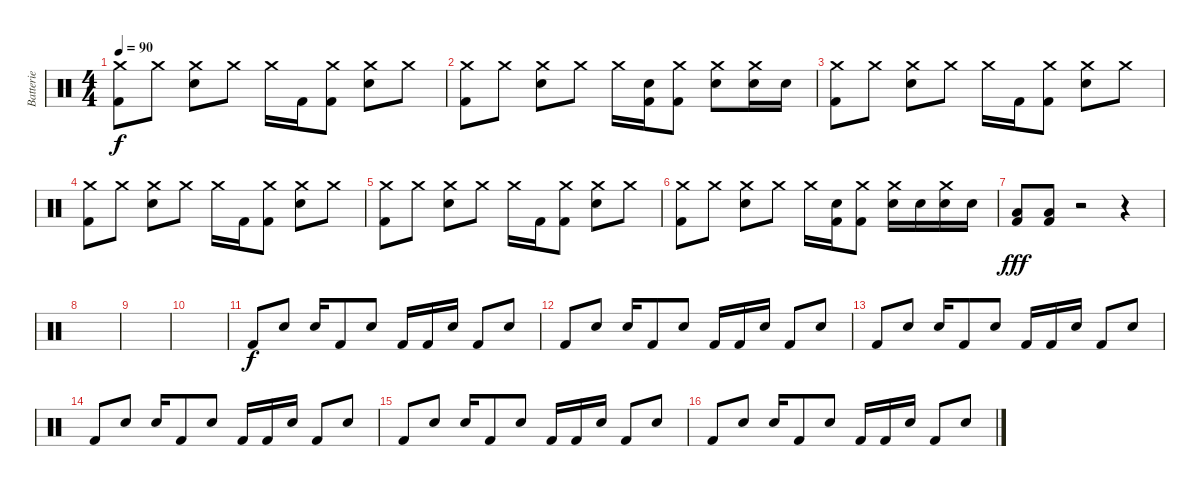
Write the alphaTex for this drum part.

\track ("Batterie" "Batterie") {instrument percussion}
\staff {score}
\articulation defaults
\ts (4 4)
\tempo 90
\clef neutral
\ks c
("Crash medium (hit)" "Kick (hit) 2").8{dy f} "Crash medium (hit)".8 ("Crash medium (hit)" "Snare (hit) 2").8 "Crash medium (hit)".8 "Crash medium (hit)".16 "Kick (hit) 2".16 ("Crash medium (hit)" "Kick (hit) 2").8 ("Crash medium (hit)" "Snare (hit) 2").8 "Crash medium (hit)".8 |
("Crash medium (hit)" "Kick (hit) 2").8 "Crash medium (hit)".8 ("Crash medium (hit)" "Snare (hit) 2").8 "Crash medium (hit)".8 "Crash medium (hit)".16 ("Snare (hit) 2" "Kick (hit) 2").16 ("Crash medium (hit)" "Kick (hit) 2").8 ("Crash medium (hit)" "Snare (hit) 2").8 ("Crash medium (hit)" "Snare (hit) 2").16 "Snare (hit) 2".16 |
("Crash medium (hit)" "Kick (hit) 2").8 "Crash medium (hit)".8 ("Crash medium (hit)" "Snare (hit) 2").8 "Crash medium (hit)".8 "Crash medium (hit)".16 "Kick (hit) 2".16 ("Crash medium (hit)" "Kick (hit) 2").8 ("Crash medium (hit)" "Snare (hit) 2").8 "Crash medium (hit)".8 |
("Crash medium (hit)" "Kick (hit) 2").8 "Crash medium (hit)".8 ("Crash medium (hit)" "Snare (hit) 2").8 "Crash medium (hit)".8 "Crash medium (hit)".16 "Kick (hit) 2".16 ("Crash medium (hit)" "Kick (hit) 2").8 ("Crash medium (hit)" "Snare (hit) 2").8 "Crash medium (hit)".8 |
("Crash medium (hit)" "Kick (hit) 2").8 "Crash medium (hit)".8 ("Crash medium (hit)" "Snare (hit) 2").8 "Crash medium (hit)".8 "Crash medium (hit)".16 "Kick (hit) 2".16 ("Crash medium (hit)" "Kick (hit) 2").8 ("Crash medium (hit)" "Snare (hit) 2").8 "Crash medium (hit)".8 |
("Crash medium (hit)" "Kick (hit) 2").8 "Crash medium (hit)".8 ("Crash medium (hit)" "Snare (hit) 2").8 "Crash medium (hit)".8 "Crash medium (hit)".16 ("Snare (hit) 2" "Kick (hit) 2").16 ("Crash medium (hit)" "Kick (hit) 2").8 ("Crash medium (hit)" "Snare (hit) 2").16 "Snare (hit) 2".16 ("Crash medium (hit)" "Snare (hit) 2").16 "Snare (hit) 2".16 |
("Low Tom (hit)" "Kick (hit) 2").8{dy fff} ("Low Tom (hit)" "Kick (hit) 2").8 r.2 r.4 |
|
|
|
"Kick (hit) 2".8{dy f} "Snare (hit) 2".8 "Snare (hit) 2".16 "Kick (hit) 2".8 "Snare (hit) 2".8 "Kick (hit) 2".16 "Kick (hit) 2".16 "Snare (hit) 2".16 "Kick (hit) 2".8 "Snare (hit) 2".8 |
"Kick (hit) 2".8 "Snare (hit) 2".8 "Snare (hit) 2".16 "Kick (hit) 2".8 "Snare (hit) 2".8 "Kick (hit) 2".16 "Kick (hit) 2".16 "Snare (hit) 2".16 "Kick (hit) 2".8 "Snare (hit) 2".8 |
"Kick (hit) 2".8 "Snare (hit) 2".8 "Snare (hit) 2".16 "Kick (hit) 2".8 "Snare (hit) 2".8 "Kick (hit) 2".16 "Kick (hit) 2".16 "Snare (hit) 2".16 "Kick (hit) 2".8 "Snare (hit) 2".8 |
"Kick (hit) 2".8 "Snare (hit) 2".8 "Snare (hit) 2".16 "Kick (hit) 2".8 "Snare (hit) 2".8 "Kick (hit) 2".16 "Kick (hit) 2".16 "Snare (hit) 2".16 "Kick (hit) 2".8 "Snare (hit) 2".8 |
"Kick (hit) 2".8 "Snare (hit) 2".8 "Snare (hit) 2".16 "Kick (hit) 2".8 "Snare (hit) 2".8 "Kick (hit) 2".16 "Kick (hit) 2".16 "Snare (hit) 2".16 "Kick (hit) 2".8 "Snare (hit) 2".8 |
"Kick (hit) 2".8 "Snare (hit) 2".8 "Snare (hit) 2".16 "Kick (hit) 2".8 "Snare (hit) 2".8 "Kick (hit) 2".16 "Kick (hit) 2".16 "Snare (hit) 2".16 "Kick (hit) 2".8 "Snare (hit) 2".8
